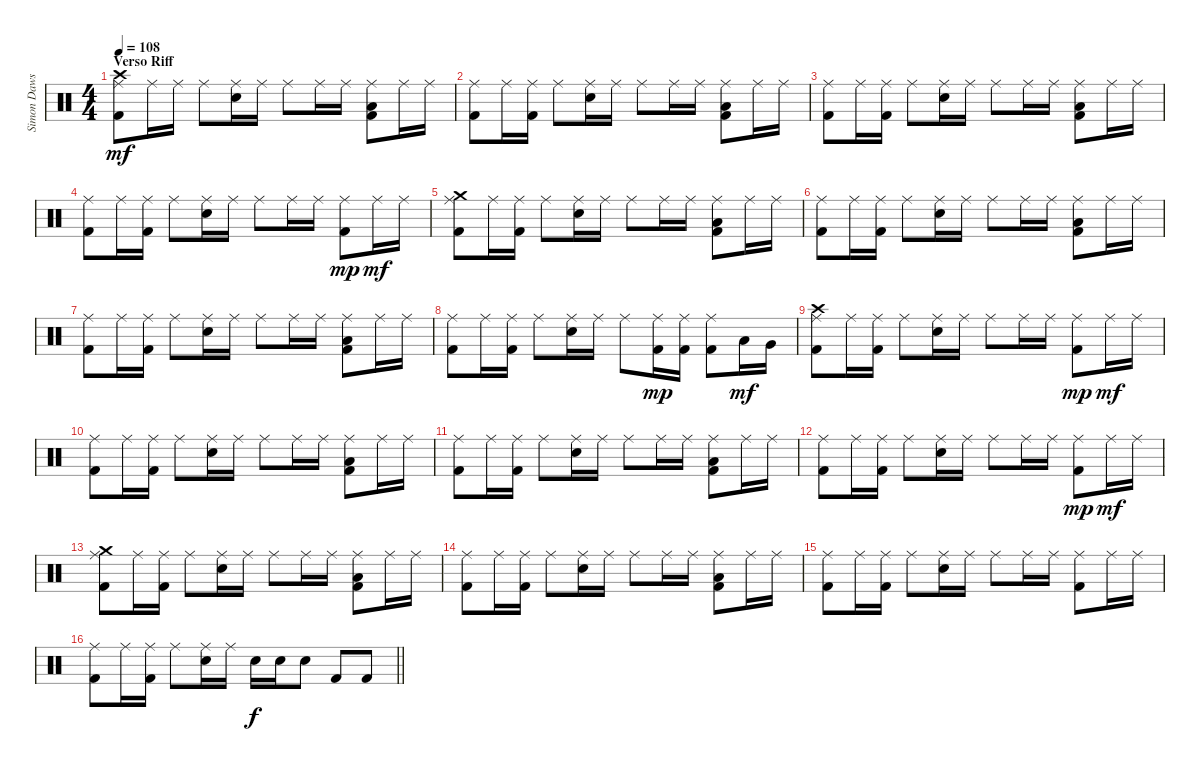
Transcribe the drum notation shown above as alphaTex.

\track ("Simon Dawson" "Simon Daws") {instrument percussion}
\staff {score}
\articulation defaults
\ts (4 4)
\section ("" "Verso Riff")
\tempo 108
\clef neutral
\ks c
("Ride (middle)" "Crash high (hit)" "Kick (hit) 2").8{dy mf} "Ride (middle)".16 "Ride (middle)".16 "Ride (middle)".8 ("Ride (middle)" "Snare (hit) 2").16 "Ride (middle)".16 "Ride (middle)".8 "Ride (middle)".16 "Ride (middle)".16 ("Ride (middle)" "Low Floor Tom (hit)" "Kick (hit) 2").8 "Ride (middle)".16 "Ride (middle)".16 |
("Ride (middle)" "Kick (hit) 2").8 "Ride (middle)".16 ("Ride (middle)" "Kick (hit) 2").16 "Ride (middle)".8 ("Ride (middle)" "Snare (hit) 2").16 "Ride (middle)".16 "Ride (middle)".8 "Ride (middle)".16 "Ride (middle)".16 ("Ride (middle)" "Low Floor Tom (hit)" "Kick (hit) 2").8 "Ride (middle)".16 "Ride (middle)".16 |
("Ride (middle)" "Kick (hit) 2").8 "Ride (middle)".16 ("Ride (middle)" "Kick (hit) 2").16 "Ride (middle)".8 ("Ride (middle)" "Snare (hit) 2").16 "Ride (middle)".16 "Ride (middle)".8 "Ride (middle)".16 "Ride (middle)".16 ("Ride (middle)" "Low Floor Tom (hit)" "Kick (hit) 2").8 "Ride (middle)".16 "Ride (middle)".16 |
("Ride (middle)" "Kick (hit) 2").8 "Ride (middle)".16 ("Ride (middle)" "Kick (hit) 2").16 "Ride (middle)".8 ("Ride (middle)" "Snare (hit) 2").16 "Ride (middle)".16 "Ride (middle)".8 "Ride (middle)".16 "Ride (middle)".16 ("Ride (middle)" "Kick (hit) 2").8{dy mp} "Ride (middle)".16{dy mf} "Ride (middle)".16 |
("Ride (middle)" "Crash medium (hit)" "Kick (hit) 2").8 "Ride (middle)".16 ("Ride (middle)" "Kick (hit) 2").16 "Ride (middle)".8 ("Ride (middle)" "Snare (hit) 2").16 "Ride (middle)".16 "Ride (middle)".8 "Ride (middle)".16 "Ride (middle)".16 ("Ride (middle)" "Low Floor Tom (hit)" "Kick (hit) 2").8 "Ride (middle)".16 "Ride (middle)".16 |
("Ride (middle)" "Kick (hit) 2").8 "Ride (middle)".16 ("Ride (middle)" "Kick (hit) 2").16 "Ride (middle)".8 ("Ride (middle)" "Snare (hit) 2").16 "Ride (middle)".16 "Ride (middle)".8 "Ride (middle)".16 "Ride (middle)".16 ("Ride (middle)" "Low Floor Tom (hit)" "Kick (hit) 2").8 "Ride (middle)".16 "Ride (middle)".16 |
("Ride (middle)" "Kick (hit) 2").8 "Ride (middle)".16 ("Ride (middle)" "Kick (hit) 2").16 "Ride (middle)".8 ("Ride (middle)" "Snare (hit) 2").16 "Ride (middle)".16 "Ride (middle)".8 "Ride (middle)".16 "Ride (middle)".16 ("Ride (middle)" "Low Floor Tom (hit)" "Kick (hit) 2").8 "Ride (middle)".16 "Ride (middle)".16 |
("Ride (middle)" "Kick (hit) 2").8 "Ride (middle)".16 ("Ride (middle)" "Kick (hit) 2").16 "Ride (middle)".8 ("Ride (middle)" "Snare (hit) 2").16 "Ride (middle)".16 "Ride (middle)".8 ("Ride (middle)" "Kick (hit) 2").16{dy mp} ("Ride (middle)" "Kick (hit) 2").16 ("Ride (middle)" "Kick (hit) 2").8 "Low Tom (hit)".16{dy mf} "Very Low Tom (hit)".16 |
("Ride (middle)" "Crash high (hit)" "Kick (hit) 2").8 "Ride (middle)".16 ("Ride (middle)" "Kick (hit) 2").16 "Ride (middle)".8 ("Ride (middle)" "Snare (hit) 2").16 "Ride (middle)".16 "Ride (middle)".8 "Ride (middle)".16 "Ride (middle)".16 ("Ride (middle)" "Kick (hit) 2").8{dy mp} "Ride (middle)".16{dy mf} "Ride (middle)".16 |
("Ride (middle)" "Kick (hit) 2").8 "Ride (middle)".16 ("Ride (middle)" "Kick (hit) 2").16 "Ride (middle)".8 ("Ride (middle)" "Snare (hit) 2").16 "Ride (middle)".16 "Ride (middle)".8 "Ride (middle)".16 "Ride (middle)".16 ("Ride (middle)" "Low Floor Tom (hit)" "Kick (hit) 2").8 "Ride (middle)".16 "Ride (middle)".16 |
("Ride (middle)" "Kick (hit) 2").8 "Ride (middle)".16 ("Ride (middle)" "Kick (hit) 2").16 "Ride (middle)".8 ("Ride (middle)" "Snare (hit) 2").16 "Ride (middle)".16 "Ride (middle)".8 "Ride (middle)".16 "Ride (middle)".16 ("Ride (middle)" "Low Floor Tom (hit)" "Kick (hit) 2").8 "Ride (middle)".16 "Ride (middle)".16 |
("Ride (middle)" "Kick (hit) 2").8 "Ride (middle)".16 ("Ride (middle)" "Kick (hit) 2").16 "Ride (middle)".8 ("Ride (middle)" "Snare (hit) 2").16 "Ride (middle)".16 "Ride (middle)".8 "Ride (middle)".16 "Ride (middle)".16 ("Ride (middle)" "Kick (hit) 2").8{dy mp} "Ride (middle)".16{dy mf} "Ride (middle)".16 |
("Ride (middle)" "Crash medium (hit)" "Kick (hit) 2").8 "Ride (middle)".16 ("Ride (middle)" "Kick (hit) 2").16 "Ride (middle)".8 ("Ride (middle)" "Snare (hit) 2").16 "Ride (middle)".16 "Ride (middle)".8 "Ride (middle)".16 "Ride (middle)".16 ("Ride (middle)" "Low Floor Tom (hit)" "Kick (hit) 2").8 "Ride (middle)".16 "Ride (middle)".16 |
("Ride (middle)" "Kick (hit) 2").8 "Ride (middle)".16 ("Ride (middle)" "Kick (hit) 2").16 "Ride (middle)".8 ("Ride (middle)" "Snare (hit) 2").16 "Ride (middle)".16 "Ride (middle)".8 "Ride (middle)".16 "Ride (middle)".16 ("Ride (middle)" "Low Floor Tom (hit)" "Kick (hit) 2").8 "Ride (middle)".16 "Ride (middle)".16 |
("Ride (middle)" "Kick (hit) 2").8 "Ride (middle)".16 ("Ride (middle)" "Kick (hit) 2").16 "Ride (middle)".8 ("Ride (middle)" "Snare (hit) 2").16 "Ride (middle)".16 "Ride (middle)".8 "Ride (middle)".16 "Ride (middle)".16 ("Ride (middle)" "Kick (hit) 2").8 "Ride (middle)".16 "Ride (middle)".16 |
\barLineRight lightlight
("Ride (middle)" "Kick (hit) 2").8 "Ride (middle)".16 ("Ride (middle)" "Kick (hit) 2").16 "Ride (middle)".8 ("Ride (middle)" "Snare (hit) 2").16 "Ride (middle)".16 "Snare (hit) 2".16{dy f} "Snare (hit) 2".16 "Snare (hit) 2".8 "Kick (hit) 2".8 "Kick (hit) 2".8
